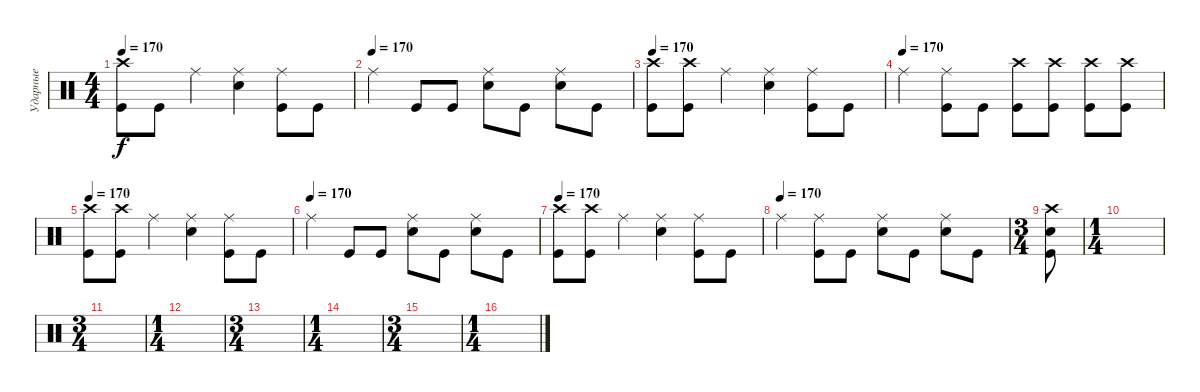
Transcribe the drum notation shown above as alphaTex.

\track ("Ударные" "Ударные") {instrument percussion}
\staff {score}
\articulation defaults
\ts (4 4)
\tempo 170
\clef neutral
\ks c
("Crash high (hit)" "Kick (hit)").8{dy f} "Kick (hit)".8 "Ride (middle)".4 ("Ride (middle)" "Electric Snare (hit)").4 ("Ride (middle)" "Kick (hit)").8 "Kick (hit)".8 |
\tempo (170)
"Ride (middle)".4 "Kick (hit)".8 "Kick (hit)".8 ("Ride (middle)" "Electric Snare (hit)").8 "Kick (hit)".8 ("Ride (middle)" "Electric Snare (hit)").8 "Kick (hit)".8 |
\tempo 170
("Crash high (hit)" "Kick (hit)").8 ("Crash high (hit)" "Kick (hit)").8 "Ride (middle)".4 ("Ride (middle)" "Electric Snare (hit)").4 ("Ride (middle)" "Kick (hit)").8 "Kick (hit)".8 |
\tempo (170)
"Ride (middle)".4 ("Ride (middle)" "Kick (hit)").8 "Kick (hit)".8 ("Crash high (hit)" "Kick (hit)").8 ("Crash high (hit)" "Kick (hit)").8 ("Crash high (hit)" "Kick (hit)").8 ("Crash high (hit)" "Kick (hit)").8 |
\tempo 170
("Crash high (hit)" "Kick (hit)").8 ("Crash high (hit)" "Kick (hit)").8 "Ride (middle)".4 ("Ride (middle)" "Electric Snare (hit)").4 ("Ride (middle)" "Kick (hit)").8 "Kick (hit)".8 |
\tempo (170)
"Ride (middle)".4 "Kick (hit)".8 "Kick (hit)".8 ("Ride (middle)" "Electric Snare (hit)").8 "Kick (hit)".8 ("Ride (middle)" "Electric Snare (hit)").8 "Kick (hit)".8 |
\tempo 170
("Crash high (hit)" "Kick (hit)").8 ("Crash high (hit)" "Kick (hit)").8 "Ride (middle)".4 ("Ride (middle)" "Electric Snare (hit)").4 ("Ride (middle)" "Kick (hit)").8 "Kick (hit)".8 |
\tempo (170)
"Ride (middle)".4 ("Ride (middle)" "Kick (hit)").8 "Kick (hit)".8 ("Ride (middle)" "Electric Snare (hit)").8 "Kick (hit)".8 ("Ride (middle)" "Electric Snare (hit)").8 "Kick (hit)".8 |
\ts (3 4)
("Crash high (hit)" "Electric Snare (hit)" "Kick (hit)").8 |
\ts (1 4)
|
\ts (3 4)
|
\ts (1 4)
|
\ts (3 4)
|
\ts (1 4)
|
\ts (3 4)
|
\ts (1 4)
